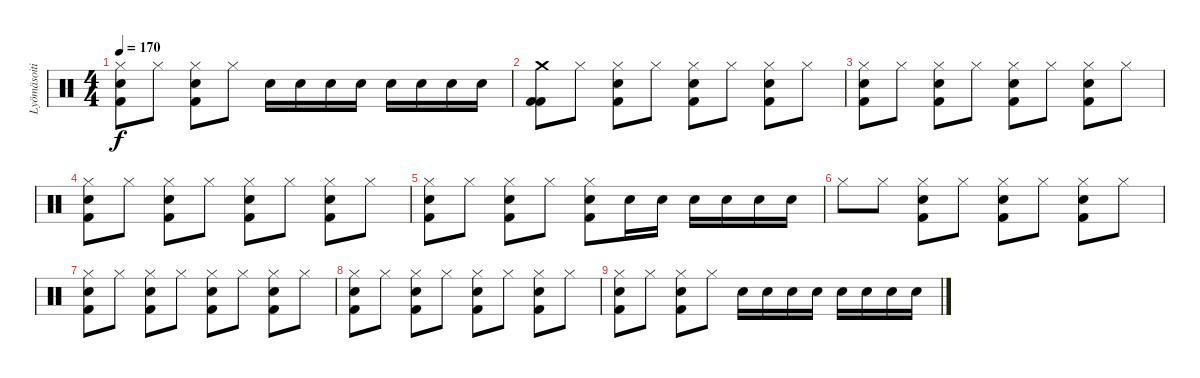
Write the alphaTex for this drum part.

\track ("Lyömäsoitin" "Lyömäsoiti") {instrument percussion}
\staff {score}
\articulation defaults
\ts (4 4)
\tempo 170
\clef neutral
\ks c
("Hi-Hat (closed)" "Snare (hit) 2" "Kick (hit) 2").8{dy f} "Hi-Hat (closed)".8 ("Hi-Hat (closed)" "Snare (hit) 2" "Kick (hit) 2").8 "Hi-Hat (closed)".8 "Snare (hit) 2".16 "Snare (hit) 2".16 "Snare (hit) 2".16 "Snare (hit) 2".16 "Snare (hit) 2".16 "Snare (hit) 2".16 "Snare (hit) 2".16 "Snare (hit) 2".16 |
("Crash medium (hit)" "Kick (hit) 2" "Kick (hit) 2").8 "Hi-Hat (closed)".8 ("Hi-Hat (closed)" "Snare (hit) 2" "Kick (hit) 2").8 "Hi-Hat (closed)".8 ("Hi-Hat (closed)" "Snare (hit) 2" "Kick (hit) 2").8 "Hi-Hat (closed)".8 ("Hi-Hat (closed)" "Snare (hit) 2" "Kick (hit) 2").8 "Hi-Hat (closed)".8 |
("Hi-Hat (closed)" "Snare (hit) 2" "Kick (hit) 2").8 "Hi-Hat (closed)".8 ("Hi-Hat (closed)" "Snare (hit) 2" "Kick (hit) 2").8 "Hi-Hat (closed)".8 ("Hi-Hat (closed)" "Snare (hit) 2" "Kick (hit) 2").8 "Hi-Hat (closed)".8 ("Hi-Hat (closed)" "Snare (hit) 2" "Kick (hit) 2").8 "Hi-Hat (closed)".8 |
("Hi-Hat (closed)" "Snare (hit) 2" "Kick (hit) 2").8 "Hi-Hat (closed)".8 ("Hi-Hat (closed)" "Snare (hit) 2" "Kick (hit) 2").8 "Hi-Hat (closed)".8 ("Hi-Hat (closed)" "Snare (hit) 2" "Kick (hit) 2").8 "Hi-Hat (closed)".8 ("Hi-Hat (closed)" "Snare (hit) 2" "Kick (hit) 2").8 "Hi-Hat (closed)".8 |
("Hi-Hat (closed)" "Snare (hit) 2" "Kick (hit) 2").8 "Hi-Hat (closed)".8 ("Hi-Hat (closed)" "Snare (hit) 2" "Kick (hit) 2").8 "Hi-Hat (closed)".8 ("Hi-Hat (closed)" "Snare (hit) 2" "Kick (hit) 2").8 "Snare (hit) 2".16 "Snare (hit) 2".16 "Snare (hit) 2".16 "Snare (hit) 2".16 "Snare (hit) 2".16 "Snare (hit) 2".16 |
"Hi-Hat (closed)".8 "Hi-Hat (closed)".8 ("Hi-Hat (closed)" "Snare (hit) 2" "Kick (hit) 2").8 "Hi-Hat (closed)".8 ("Hi-Hat (closed)" "Snare (hit) 2" "Kick (hit) 2").8 "Hi-Hat (closed)".8 ("Hi-Hat (closed)" "Snare (hit) 2" "Kick (hit) 2").8 "Hi-Hat (closed)".8 |
("Hi-Hat (closed)" "Snare (hit) 2" "Kick (hit) 2").8 "Hi-Hat (closed)".8 ("Hi-Hat (closed)" "Snare (hit) 2" "Kick (hit) 2").8 "Hi-Hat (closed)".8 ("Hi-Hat (closed)" "Snare (hit) 2" "Kick (hit) 2").8 "Hi-Hat (closed)".8 ("Hi-Hat (closed)" "Snare (hit) 2" "Kick (hit) 2").8 "Hi-Hat (closed)".8 |
("Hi-Hat (closed)" "Snare (hit) 2" "Kick (hit) 2").8 "Hi-Hat (closed)".8 ("Hi-Hat (closed)" "Snare (hit) 2" "Kick (hit) 2").8 "Hi-Hat (closed)".8 ("Hi-Hat (closed)" "Snare (hit) 2" "Kick (hit) 2").8 "Hi-Hat (closed)".8 ("Hi-Hat (closed)" "Snare (hit) 2" "Kick (hit) 2").8 "Hi-Hat (closed)".8 |
("Hi-Hat (closed)" "Snare (hit) 2" "Kick (hit) 2").8 "Hi-Hat (closed)".8 ("Hi-Hat (closed)" "Snare (hit) 2" "Kick (hit) 2").8 "Hi-Hat (closed)".8 "Snare (hit) 2".16 "Snare (hit) 2".16 "Snare (hit) 2".16 "Snare (hit) 2".16 "Snare (hit) 2".16 "Snare (hit) 2".16 "Snare (hit) 2".16 "Snare (hit) 2".16
